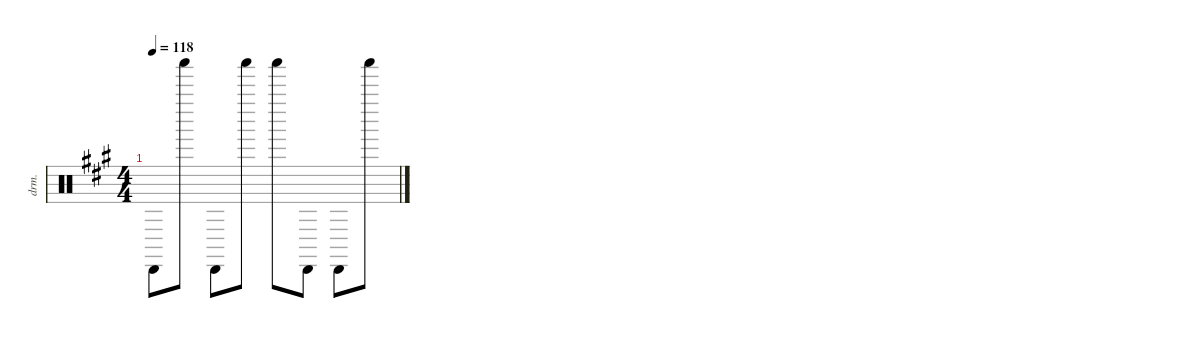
\defaultSystemsLayout 4
\hideDynamics
\bracketExtendMode nobrackets
\otherSystemsTrackNameOrientation horizontal
\track ("shaker" "drm.") {instrument percussion}
\staff {score}
\articulation defaults
\ts (4 4)
\tempo 118
\clef neutral
\ks f#minor "Cabasa (hit)"{acc forcenatural}.8{dy f} "Shaker (hit)"{acc forcenatural}.8 "Cabasa (hit)"{acc forcenatural}.8{dy mp} "Shaker (hit)"{acc forcenatural}.8{dy f} "Shaker (hit)"{acc forcenatural}.8{dy p} "Cabasa (hit)"{acc forcenatural}.8{dy f} "Cabasa (hit)"{acc forcenatural}.8 "Shaker (hit)"{acc forcenatural}.8
